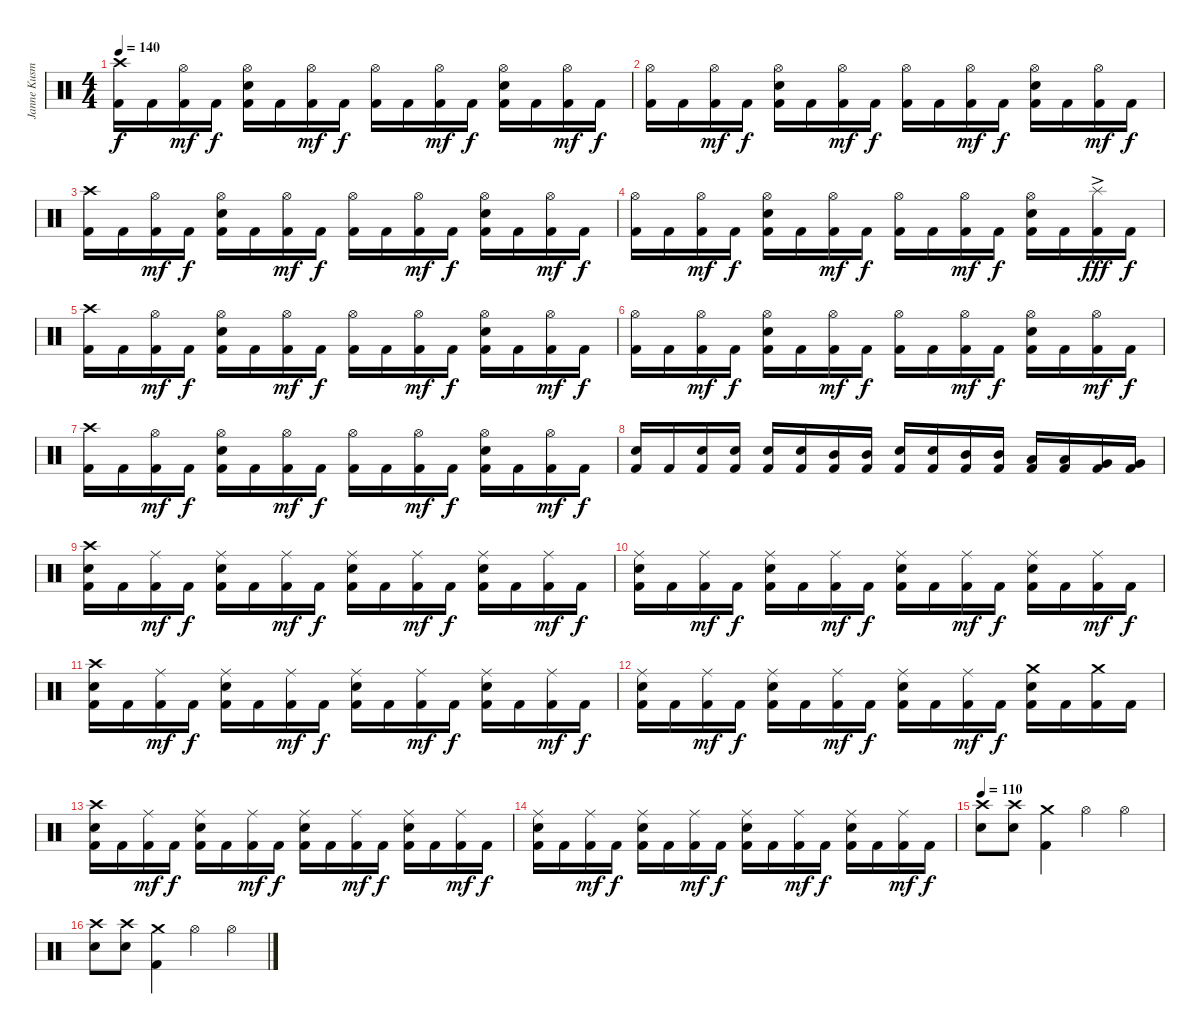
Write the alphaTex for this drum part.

\track ("Janne Kusmin" "Janne Kusm") {instrument percussion}
\staff {score}
\articulation defaults
\ts (4 4)
\tempo 140
\clef neutral
\ks c
("Crash high (hit)" "Kick (hit) 2").16{dy f} "Kick (hit) 2".16 ("Hi-Hat (open)" "Kick (hit) 2").16{dy mf} "Kick (hit) 2".16{dy f} ("Hi-Hat (open)" "Electric Snare (hit)" "Kick (hit) 2").16 "Kick (hit) 2".16 ("Hi-Hat (open)" "Kick (hit) 2").16{dy mf} "Kick (hit) 2".16{dy f} ("Hi-Hat (open)" "Kick (hit) 2").16 "Kick (hit) 2".16 ("Hi-Hat (open)" "Kick (hit) 2").16{dy mf} "Kick (hit) 2".16{dy f} ("Hi-Hat (open)" "Electric Snare (hit)" "Kick (hit) 2").16 "Kick (hit) 2".16 ("Hi-Hat (open)" "Kick (hit) 2").16{dy mf} "Kick (hit) 2".16{dy f} |
("Hi-Hat (open)" "Kick (hit) 2").16 "Kick (hit) 2".16 ("Hi-Hat (open)" "Kick (hit) 2").16{dy mf} "Kick (hit) 2".16{dy f} ("Hi-Hat (open)" "Electric Snare (hit)" "Kick (hit) 2").16 "Kick (hit) 2".16 ("Hi-Hat (open)" "Kick (hit) 2").16{dy mf} "Kick (hit) 2".16{dy f} ("Hi-Hat (open)" "Kick (hit) 2").16 "Kick (hit) 2".16 ("Hi-Hat (open)" "Kick (hit) 2").16{dy mf} "Kick (hit) 2".16{dy f} ("Hi-Hat (open)" "Electric Snare (hit)" "Kick (hit) 2").16 "Kick (hit) 2".16 ("Hi-Hat (open)" "Kick (hit) 2").16{dy mf} "Kick (hit) 2".16{dy f} |
("Crash high (hit)" "Kick (hit) 2").16 "Kick (hit) 2".16 ("Hi-Hat (open)" "Kick (hit) 2").16{dy mf} "Kick (hit) 2".16{dy f} ("Hi-Hat (open)" "Electric Snare (hit)" "Kick (hit) 2").16 "Kick (hit) 2".16 ("Hi-Hat (open)" "Kick (hit) 2").16{dy mf} "Kick (hit) 2".16{dy f} ("Hi-Hat (open)" "Kick (hit) 2").16 "Kick (hit) 2".16 ("Hi-Hat (open)" "Kick (hit) 2").16{dy mf} "Kick (hit) 2".16{dy f} ("Hi-Hat (open)" "Electric Snare (hit)" "Kick (hit) 2").16 "Kick (hit) 2".16 ("Hi-Hat (open)" "Kick (hit) 2").16{dy mf} "Kick (hit) 2".16{dy f} |
("Hi-Hat (open)" "Kick (hit) 2").16 "Kick (hit) 2".16 ("Hi-Hat (open)" "Kick (hit) 2").16{dy mf} "Kick (hit) 2".16{dy f} ("Hi-Hat (open)" "Electric Snare (hit)" "Kick (hit) 2").16 "Kick (hit) 2".16 ("Hi-Hat (open)" "Kick (hit) 2").16{dy mf} "Kick (hit) 2".16{dy f} ("Hi-Hat (open)" "Kick (hit) 2").16 "Kick (hit) 2".16 ("Hi-Hat (open)" "Kick (hit) 2").16{dy mf} "Kick (hit) 2".16{dy f} ("Hi-Hat (open)" "Electric Snare (hit)" "Kick (hit) 2").16 "Kick (hit) 2".16 ("Splash (hit)"{ac} "Kick (hit) 2").16{dy fff} "Kick (hit) 2".16{dy f} |
("Crash high (hit)" "Kick (hit) 2").16 "Kick (hit) 2".16 ("Hi-Hat (open)" "Kick (hit) 2").16{dy mf} "Kick (hit) 2".16{dy f} ("Hi-Hat (open)" "Electric Snare (hit)" "Kick (hit) 2").16 "Kick (hit) 2".16 ("Hi-Hat (open)" "Kick (hit) 2").16{dy mf} "Kick (hit) 2".16{dy f} ("Hi-Hat (open)" "Kick (hit) 2").16 "Kick (hit) 2".16 ("Hi-Hat (open)" "Kick (hit) 2").16{dy mf} "Kick (hit) 2".16{dy f} ("Hi-Hat (open)" "Electric Snare (hit)" "Kick (hit) 2").16 "Kick (hit) 2".16 ("Hi-Hat (open)" "Kick (hit) 2").16{dy mf} "Kick (hit) 2".16{dy f} |
("Hi-Hat (open)" "Kick (hit) 2").16 "Kick (hit) 2".16 ("Hi-Hat (open)" "Kick (hit) 2").16{dy mf} "Kick (hit) 2".16{dy f} ("Hi-Hat (open)" "Electric Snare (hit)" "Kick (hit) 2").16 "Kick (hit) 2".16 ("Hi-Hat (open)" "Kick (hit) 2").16{dy mf} "Kick (hit) 2".16{dy f} ("Hi-Hat (open)" "Kick (hit) 2").16 "Kick (hit) 2".16 ("Hi-Hat (open)" "Kick (hit) 2").16{dy mf} "Kick (hit) 2".16{dy f} ("Hi-Hat (open)" "Electric Snare (hit)" "Kick (hit) 2").16 "Kick (hit) 2".16 ("Hi-Hat (open)" "Kick (hit) 2").16{dy mf} "Kick (hit) 2".16{dy f} |
("Crash high (hit)" "Kick (hit) 2").16 "Kick (hit) 2".16 ("Hi-Hat (open)" "Kick (hit) 2").16{dy mf} "Kick (hit) 2".16{dy f} ("Hi-Hat (open)" "Electric Snare (hit)" "Kick (hit) 2").16 "Kick (hit) 2".16 ("Hi-Hat (open)" "Kick (hit) 2").16{dy mf} "Kick (hit) 2".16{dy f} ("Hi-Hat (open)" "Kick (hit) 2").16 "Kick (hit) 2".16 ("Hi-Hat (open)" "Kick (hit) 2").16{dy mf} "Kick (hit) 2".16{dy f} ("Hi-Hat (open)" "Electric Snare (hit)" "Kick (hit) 2").16 "Kick (hit) 2".16 ("Hi-Hat (open)" "Kick (hit) 2").16{dy mf} "Kick (hit) 2".16{dy f} |
("Electric Snare (hit)" "Kick (hit) 2").16 "Kick (hit) 2".16 ("Electric Snare (hit)" "Kick (hit) 2").16 ("Electric Snare (hit)" "Kick (hit) 2").16 ("Electric Snare (hit)" "Kick (hit) 2").16 ("Electric Snare (hit)" "Kick (hit) 2").16 ("Mid Tom (hit)" "Kick (hit) 2").16 ("Mid Tom (hit)" "Kick (hit) 2").16 ("Electric Snare (hit)" "Kick (hit) 2").16 ("Electric Snare (hit)" "Kick (hit) 2").16 ("Mid Tom (hit)" "Kick (hit) 2").16 ("Mid Tom (hit)" "Kick (hit) 2").16 ("Low Tom (hit)" "Kick (hit) 2").16 ("Low Tom (hit)" "Kick (hit) 2").16 ("Very Low Tom (hit)" "Kick (hit) 2").16 ("Very Low Tom (hit)" "Kick (hit) 2").16 |
("Crash high (hit)" "Electric Snare (hit)" "Kick (hit) 2").16 "Kick (hit) 2".16 ("Ride (middle)" "Kick (hit) 2").16{dy mf} "Kick (hit) 2".16{dy f} ("Ride (middle)" "Electric Snare (hit)" "Kick (hit) 2").16 "Kick (hit) 2".16 ("Ride (middle)" "Kick (hit) 2").16{dy mf} "Kick (hit) 2".16{dy f} ("Ride (middle)" "Electric Snare (hit)" "Kick (hit) 2").16 "Kick (hit) 2".16 ("Ride (middle)" "Kick (hit) 2").16{dy mf} "Kick (hit) 2".16{dy f} ("Ride (middle)" "Electric Snare (hit)" "Kick (hit) 2").16 "Kick (hit) 2".16 ("Ride (middle)" "Kick (hit) 2").16{dy mf} "Kick (hit) 2".16{dy f} |
("Ride (middle)" "Electric Snare (hit)" "Kick (hit) 2").16 "Kick (hit) 2".16 ("Ride (middle)" "Kick (hit) 2").16{dy mf} "Kick (hit) 2".16{dy f} ("Ride (middle)" "Electric Snare (hit)" "Kick (hit) 2").16 "Kick (hit) 2".16 ("Ride (middle)" "Kick (hit) 2").16{dy mf} "Kick (hit) 2".16{dy f} ("Ride (middle)" "Electric Snare (hit)" "Kick (hit) 2").16 "Kick (hit) 2".16 ("Ride (middle)" "Kick (hit) 2").16{dy mf} "Kick (hit) 2".16{dy f} ("Ride (middle)" "Electric Snare (hit)" "Kick (hit) 2").16 "Kick (hit) 2".16 ("Ride (middle)" "Kick (hit) 2").16{dy mf} "Kick (hit) 2".16{dy f} |
("Crash high (hit)" "Electric Snare (hit)" "Kick (hit) 2").16 "Kick (hit) 2".16 ("Ride (middle)" "Kick (hit) 2").16{dy mf} "Kick (hit) 2".16{dy f} ("Ride (middle)" "Electric Snare (hit)" "Kick (hit) 2").16 "Kick (hit) 2".16 ("Ride (middle)" "Kick (hit) 2").16{dy mf} "Kick (hit) 2".16{dy f} ("Ride (middle)" "Electric Snare (hit)" "Kick (hit) 2").16 "Kick (hit) 2".16 ("Ride (middle)" "Kick (hit) 2").16{dy mf} "Kick (hit) 2".16{dy f} ("Ride (middle)" "Electric Snare (hit)" "Kick (hit) 2").16 "Kick (hit) 2".16 ("Ride (middle)" "Kick (hit) 2").16{dy mf} "Kick (hit) 2".16{dy f} |
("Ride (middle)" "Electric Snare (hit)" "Kick (hit) 2").16 "Kick (hit) 2".16 ("Ride (middle)" "Kick (hit) 2").16{dy mf} "Kick (hit) 2".16{dy f} ("Ride (middle)" "Electric Snare (hit)" "Kick (hit) 2").16 "Kick (hit) 2".16 ("Ride (middle)" "Kick (hit) 2").16{dy mf} "Kick (hit) 2".16{dy f} ("Ride (middle)" "Electric Snare (hit)" "Kick (hit) 2").16 "Kick (hit) 2".16 ("Ride (middle)" "Kick (hit) 2").16{dy mf} "Kick (hit) 2".16{dy f} ("Crash medium (hit)" "Electric Snare (hit)" "Kick (hit) 2").16 "Kick (hit) 2".16 ("Crash medium (hit)" "Kick (hit) 2").16 "Kick (hit) 2".16 |
("Crash high (hit)" "Electric Snare (hit)" "Kick (hit) 2").16 "Kick (hit) 2".16 ("Ride (middle)" "Kick (hit) 2").16{dy mf} "Kick (hit) 2".16{dy f} ("Ride (middle)" "Electric Snare (hit)" "Kick (hit) 2").16 "Kick (hit) 2".16 ("Ride (middle)" "Kick (hit) 2").16{dy mf} "Kick (hit) 2".16{dy f} ("Ride (middle)" "Electric Snare (hit)" "Kick (hit) 2").16 "Kick (hit) 2".16 ("Ride (middle)" "Kick (hit) 2").16{dy mf} "Kick (hit) 2".16{dy f} ("Ride (middle)" "Electric Snare (hit)" "Kick (hit) 2").16 "Kick (hit) 2".16 ("Ride (middle)" "Kick (hit) 2").16{dy mf} "Kick (hit) 2".16{dy f} |
("Ride (middle)" "Electric Snare (hit)" "Kick (hit) 2").16 "Kick (hit) 2".16 ("Ride (middle)" "Kick (hit) 2").16{dy mf} "Kick (hit) 2".16{dy f} ("Ride (middle)" "Electric Snare (hit)" "Kick (hit) 2").16 "Kick (hit) 2".16 ("Ride (middle)" "Kick (hit) 2").16{dy mf} "Kick (hit) 2".16{dy f} ("Ride (middle)" "Electric Snare (hit)" "Kick (hit) 2").16 "Kick (hit) 2".16 ("Ride (middle)" "Kick (hit) 2").16{dy mf} "Kick (hit) 2".16{dy f} ("Ride (middle)" "Electric Snare (hit)" "Kick (hit) 2").16 "Kick (hit) 2".16 ("Ride (middle)" "Kick (hit) 2").16{dy mf} "Kick (hit) 2".16{dy f} |
\tempo 110
("Crash high (hit)" "Electric Snare (hit)").8 ("Crash high (hit)" "Electric Snare (hit)").8 ("Crash medium (hit)" "Kick (hit) 2").4 "Hi-Hat (open)".4 "Hi-Hat (open)".4 |
("Crash high (hit)" "Electric Snare (hit)").8 ("Crash high (hit)" "Electric Snare (hit)").8 ("Crash medium (hit)" "Kick (hit) 2").4 "Hi-Hat (open)".4 "Hi-Hat (open)".4
